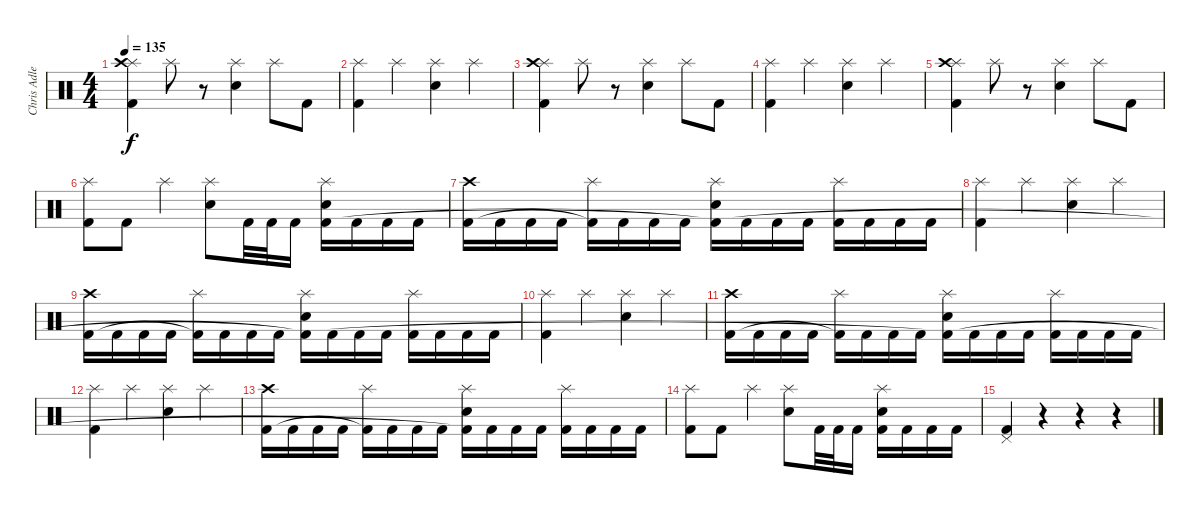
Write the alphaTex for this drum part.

\track ("Chris Adler" "Chris Adle") {instrument percussion}
\staff {score}
\articulation defaults
\ts (4 4)
\tempo 135
\clef neutral
\ks c
("Splash (hit)" "Crash high (hit)" "Kick (hit) 2").4{dy f} "Splash (hit)".8 r.8 ("Splash (hit)" "Electric Snare (hit)").4 "Splash (hit)".8 "Kick (hit) 2".8 |
("Splash (hit)" "Kick (hit) 2").4 "Splash (hit)".4 ("Splash (hit)" "Electric Snare (hit)").4 "Splash (hit)".4 |
("Splash (hit)" "Crash high (hit)" "Kick (hit) 2").4 "Splash (hit)".8 r.8 ("Splash (hit)" "Electric Snare (hit)").4 "Splash (hit)".8 "Kick (hit) 2".8 |
("Splash (hit)" "Kick (hit) 2").4 "Splash (hit)".4 ("Splash (hit)" "Electric Snare (hit)").4 "Splash (hit)".4 |
("Splash (hit)" "Crash high (hit)" "Kick (hit) 2").4 "Splash (hit)".8 r.8 ("Splash (hit)" "Electric Snare (hit)").4 "Splash (hit)".8 "Kick (hit) 2".8 |
("Splash (hit)" "Kick (hit) 2").8 "Kick (hit) 2".8 "Splash (hit)".4 ("Splash (hit)" "Electric Snare (hit)").8 "Kick (hit) 2".32 "Kick (hit) 2".32 "Kick (hit) 2".16 ("Splash (hit)" "Electric Snare (hit)" "Kick (hit) 2").16 "Kick (hit) 2".16 "Kick (hit) 2".16 "Kick (hit) 2".16 |
("Crash high (hit)" "Kick (hit) 2").16 "Kick (hit) 2".16 "Kick (hit) 2".16 "Kick (hit) 2".16 ("Splash (hit)" "Kick (hit) 2"{t}).16 "Kick (hit) 2".16 "Kick (hit) 2".16 "Kick (hit) 2".16 ("Splash (hit)" "Electric Snare (hit)" "Kick (hit) 2"{t}).16 "Kick (hit) 2".16 "Kick (hit) 2".16 "Kick (hit) 2".16 ("Splash (hit)" "Kick (hit) 2").16 "Kick (hit) 2".16 "Kick (hit) 2".16 "Kick (hit) 2".16 |
("Splash (hit)" "Kick (hit) 2").4 "Splash (hit)".4 ("Splash (hit)" "Electric Snare (hit)").4 "Splash (hit)".4 |
("Crash high (hit)" "Kick (hit) 2").16 "Kick (hit) 2".16 "Kick (hit) 2".16 "Kick (hit) 2".16 ("Splash (hit)" "Kick (hit) 2"{t}).16 "Kick (hit) 2".16 "Kick (hit) 2".16 "Kick (hit) 2".16 ("Splash (hit)" "Electric Snare (hit)" "Kick (hit) 2"{t}).16 "Kick (hit) 2".16 "Kick (hit) 2".16 "Kick (hit) 2".16 ("Splash (hit)" "Kick (hit) 2").16 "Kick (hit) 2".16 "Kick (hit) 2".16 "Kick (hit) 2".16 |
("Splash (hit)" "Kick (hit) 2").4 "Splash (hit)".4 ("Splash (hit)" "Electric Snare (hit)").4 "Splash (hit)".4 |
("Crash high (hit)" "Kick (hit) 2").16 "Kick (hit) 2".16 "Kick (hit) 2".16 "Kick (hit) 2".16 ("Splash (hit)" "Kick (hit) 2"{t}).16 "Kick (hit) 2".16 "Kick (hit) 2".16 "Kick (hit) 2".16 ("Splash (hit)" "Electric Snare (hit)" "Kick (hit) 2"{t}).16 "Kick (hit) 2".16 "Kick (hit) 2".16 "Kick (hit) 2".16 ("Splash (hit)" "Kick (hit) 2").16 "Kick (hit) 2".16 "Kick (hit) 2".16 "Kick (hit) 2".16 |
("Splash (hit)" "Kick (hit) 2").4 "Splash (hit)".4 ("Splash (hit)" "Electric Snare (hit)").4 "Splash (hit)".4 |
("Crash high (hit)" "Kick (hit) 2").16 "Kick (hit) 2".16 "Kick (hit) 2".16 "Kick (hit) 2".16 ("Splash (hit)" "Kick (hit) 2"{t}).16 "Kick (hit) 2".16 "Kick (hit) 2".16 "Kick (hit) 2".16 ("Splash (hit)" "Electric Snare (hit)" "Kick (hit) 2"{t}).16 "Kick (hit) 2".16 "Kick (hit) 2".16 "Kick (hit) 2".16 ("Splash (hit)" "Kick (hit) 2").16 "Kick (hit) 2".16 "Kick (hit) 2".16 "Kick (hit) 2".16 |
("Splash (hit)" "Kick (hit) 2").8 "Kick (hit) 2".8 "Splash (hit)".4 ("Splash (hit)" "Electric Snare (hit)").8 "Kick (hit) 2".32 "Kick (hit) 2".32 "Kick (hit) 2".16 ("Splash (hit)" "Electric Snare (hit)" "Kick (hit) 2").16 "Kick (hit) 2".16 "Kick (hit) 2".16 "Kick (hit) 2".16 |
("Pedal Hi-Hat (hit)" "Kick (hit) 2").4 r.4 r.4 r.4
